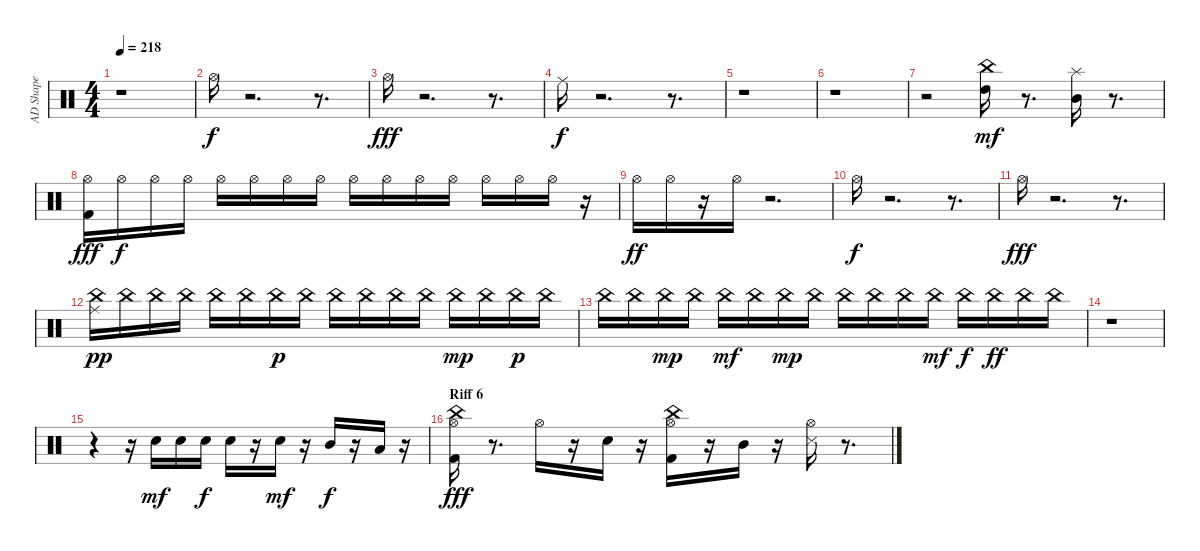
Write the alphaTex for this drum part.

\track ("AD Shape" "AD Shape") {instrument percussion}
\staff {score}
\articulation defaults
\ts (4 4)
\tempo 218
\clef neutral
\ks c
r.1{dy ff} |
"Hi-Hat (open)".16{dy f} r.2{d} r.8{d} |
"Hi-Hat (open)".16{dy fff} r.2{d} r.8{d} |
"Ride (middle)".16{dy f} r.2{d} r.8{d} |
r.1 |
r.1 |
r.2 ("High Tom (hit)" "China (hit)").16{dy mf} r.8{d} ("Mid Tom (hit)" "Splash (hit)").16 r.8{d} |
("Kick (hit) 2" "Hi-Hat (open)").16{dy fff} "Hi-Hat (open)".16{dy f} "Hi-Hat (open)".16 "Hi-Hat (open)".16 "Hi-Hat (open)".16 "Hi-Hat (open)".16 "Hi-Hat (open)".16 "Hi-Hat (open)".16 "Hi-Hat (open)".16 "Hi-Hat (open)".16 "Hi-Hat (open)".16 "Hi-Hat (open)".16 "Hi-Hat (open)".16 "Hi-Hat (open)".16 "Hi-Hat (open)".16 r.16 |
"Hi-Hat (open)".16{dy ff} "Hi-Hat (open)".16 r.16 "Hi-Hat (open)".16 r.2{d} |
"Hi-Hat (open)".16{dy f} r.2{d} r.8{d} |
"Hi-Hat (open)".16{dy fff} r.2{d} r.8{d} |
("Ride (middle)" "China (hit)").16{dy pp} "China (hit)".16 "China (hit)".16 "China (hit)".16 "China (hit)".16 "China (hit)".16 "China (hit)".16{dy p} "China (hit)".16 "China (hit)".16 "China (hit)".16 "China (hit)".16 "China (hit)".16 "China (hit)".16{dy mp} "China (hit)".16 "China (hit)".16{dy p} "China (hit)".16 |
"China (hit)".16 "China (hit)".16 "China (hit)".16{dy mp} "China (hit)".16 "China (hit)".16{dy mf} "China (hit)".16 "China (hit)".16{dy mp} "China (hit)".16 "China (hit)".16 "China (hit)".16 "China (hit)".16 "China (hit)".16{dy mf} "China (hit)".16{dy f} "China (hit)".16{dy ff} "China (hit)".16 "China (hit)".16 |
r.1 |
r.4 r.16 "Snare (hit) 2".16{dy mf} "Snare (hit) 2".16 "Snare (hit) 2".16{dy f} "Snare (hit) 2".16 r.16 "Snare (hit) 2".16{dy mf} r.16 "Mid Tom (hit)".16{dy f} r.16 "Low Tom (hit)".16 r.16 |
\section ("" "Riff 6")
("Kick (hit) 2" "Hi-Hat (open)" "China (hit)").16{dy fff} r.8{d} "Hi-Hat (open)".16 r.16 "Snare (hit) 2".16 r.16 ("Kick (hit) 2" "Hi-Hat (open)" "China (hit)").16 r.16 "Mid Tom (hit)".16 r.16 ("Snare (side stick) 3" "Hi-Hat (open)").16 r.8{d}
